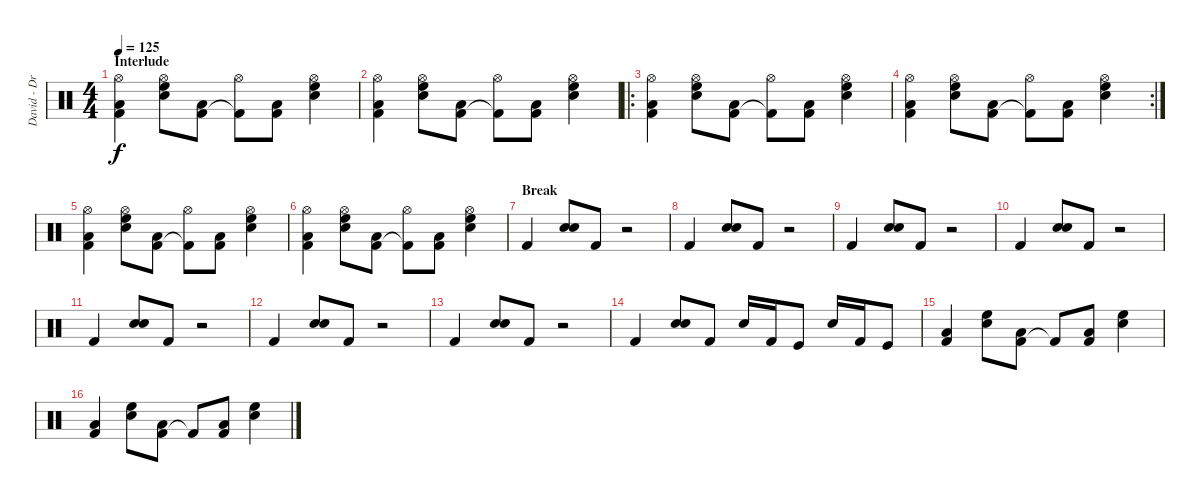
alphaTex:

\track ("David - Drums" "David - Dr") {instrument percussion}
\staff {score}
\articulation defaults
\ts (4 4)
\section ("" "Interlude")
\tempo 125
\clef neutral
\ks c
("Kick (hit) 2" "Low Floor Tom (hit)" "Hi-Hat (open)").4{dy f} ("Snare (hit) 2" "High Floor Tom (hit)" "Hi-Hat (open)").8 ("Kick (hit) 2" "Low Floor Tom (hit)").8 ("Kick (hit) 2"{t} "Hi-Hat (open)").8 ("Kick (hit) 2" "Low Floor Tom (hit)").8 ("Snare (hit) 2" "High Floor Tom (hit)" "Hi-Hat (open)").4 |
("Kick (hit) 2" "Low Floor Tom (hit)" "Hi-Hat (open)").4 ("Snare (hit) 2" "High Floor Tom (hit)" "Hi-Hat (open)").8 ("Kick (hit) 2" "Low Floor Tom (hit)").8 ("Kick (hit) 2"{t} "Hi-Hat (open)").8 ("Kick (hit) 2" "Low Floor Tom (hit)").8 ("Snare (hit) 2" "High Floor Tom (hit)" "Hi-Hat (open)").4 |
\ro
("Kick (hit) 2" "Low Floor Tom (hit)" "Hi-Hat (open)").4 ("Snare (hit) 2" "High Floor Tom (hit)" "Hi-Hat (open)").8 ("Kick (hit) 2" "Low Floor Tom (hit)").8 ("Kick (hit) 2"{t} "Hi-Hat (open)").8 ("Kick (hit) 2" "Low Floor Tom (hit)").8 ("Snare (hit) 2" "High Floor Tom (hit)" "Hi-Hat (open)").4 |
\rc 2
("Kick (hit) 2" "Low Floor Tom (hit)" "Hi-Hat (open)").4 ("Snare (hit) 2" "High Floor Tom (hit)" "Hi-Hat (open)").8 ("Kick (hit) 2" "Low Floor Tom (hit)").8 ("Kick (hit) 2"{t} "Hi-Hat (open)").8 ("Kick (hit) 2" "Low Floor Tom (hit)").8 ("Snare (hit) 2" "High Floor Tom (hit)" "Hi-Hat (open)").4 |
("Kick (hit) 2" "Low Floor Tom (hit)" "Hi-Hat (open)").4 ("Snare (hit) 2" "High Floor Tom (hit)" "Hi-Hat (open)").8 ("Kick (hit) 2" "Low Floor Tom (hit)").8 ("Kick (hit) 2"{t} "Hi-Hat (open)").8 ("Kick (hit) 2" "Low Floor Tom (hit)").8 ("Snare (hit) 2" "High Floor Tom (hit)" "Hi-Hat (open)").4 |
("Kick (hit) 2" "Low Floor Tom (hit)" "Hi-Hat (open)").4 ("Snare (hit) 2" "High Floor Tom (hit)" "Hi-Hat (open)").8 ("Kick (hit) 2" "Low Floor Tom (hit)").8 ("Kick (hit) 2"{t} "Hi-Hat (open)").8 ("Kick (hit) 2" "Low Floor Tom (hit)").8 ("Snare (hit) 2" "High Floor Tom (hit)" "Hi-Hat (open)").4 |
\section ("" "Break")
"Kick (hit) 2".4 ("Snare (hit) 2" "Electric Snare (hit)").8 "Kick (hit) 2".8 r.2 |
"Kick (hit) 2".4 ("Snare (hit) 2" "Electric Snare (hit)").8 "Kick (hit) 2".8 r.2 |
"Kick (hit) 2".4 ("Snare (hit) 2" "Electric Snare (hit)").8 "Kick (hit) 2".8 r.2 |
"Kick (hit) 2".4 ("Snare (hit) 2" "Electric Snare (hit)").8 "Kick (hit) 2".8 r.2 |
"Kick (hit) 2".4 ("Snare (hit) 2" "Electric Snare (hit)").8 "Kick (hit) 2".8 r.2 |
"Kick (hit) 2".4 ("Snare (hit) 2" "Electric Snare (hit)").8 "Kick (hit) 2".8 r.2 |
"Kick (hit) 2".4 ("Snare (hit) 2" "Electric Snare (hit)").8 "Kick (hit) 2".8 r.2 |
"Kick (hit) 2".4 ("Snare (hit) 2" "Electric Snare (hit)").8 "Kick (hit) 2".8 "Snare (hit) 2".16 "Kick (hit) 2".16 "Kick (hit)".8 "Snare (hit) 2".16 "Kick (hit) 2".16 "Kick (hit)".8 |
("Kick (hit) 2" "Low Floor Tom (hit)").4 ("Snare (hit) 2" "High Floor Tom (hit)").8 ("Kick (hit) 2" "Low Floor Tom (hit)").8 "Kick (hit) 2"{t}.8 ("Kick (hit) 2" "Low Floor Tom (hit)").8 ("Snare (hit) 2" "High Floor Tom (hit)").4 |
("Kick (hit) 2" "Low Floor Tom (hit)").4 ("Snare (hit) 2" "High Floor Tom (hit)").8 ("Kick (hit) 2" "Low Floor Tom (hit)").8 "Kick (hit) 2"{t}.8 ("Kick (hit) 2" "Low Floor Tom (hit)").8 ("Snare (hit) 2" "High Floor Tom (hit)").4
